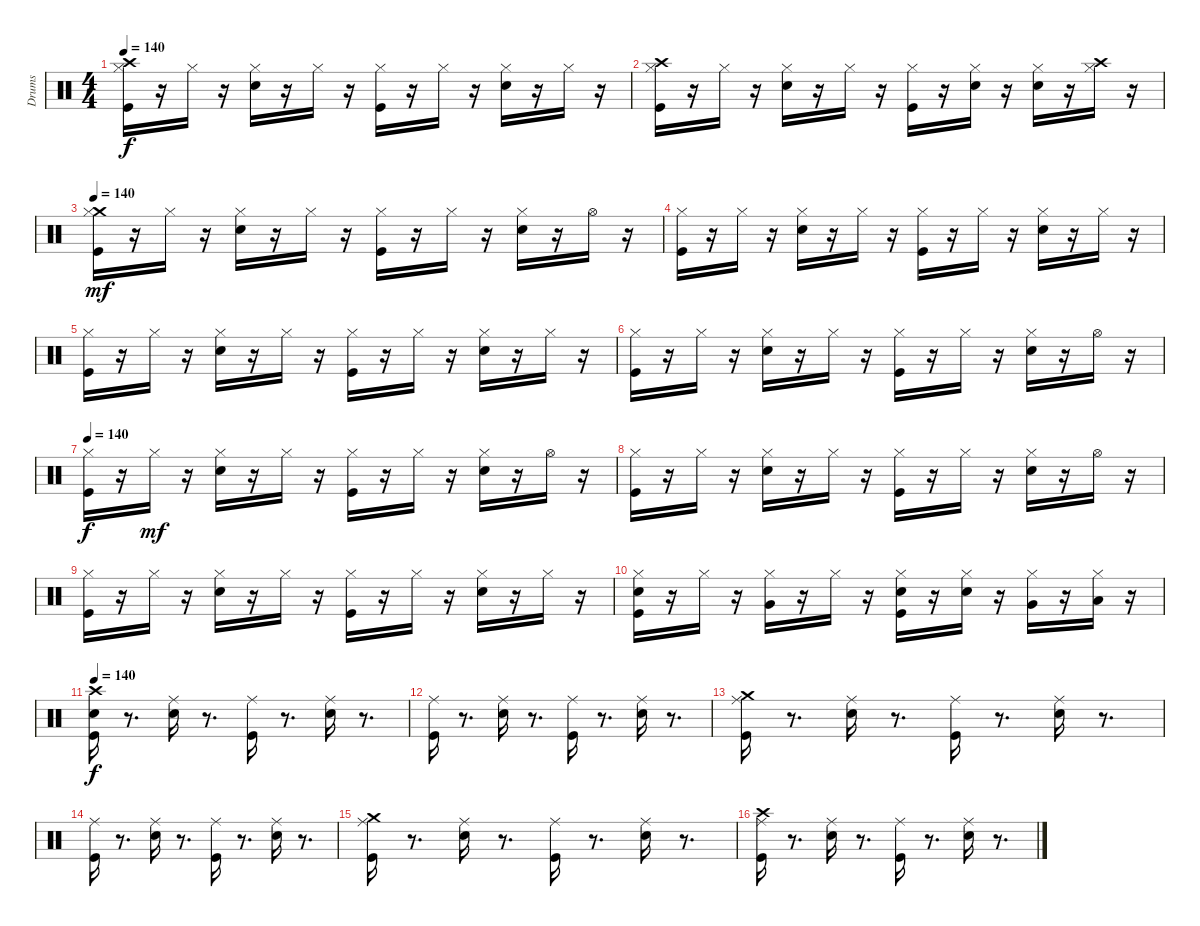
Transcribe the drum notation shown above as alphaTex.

\track ("Drums" "Drums") {instrument percussion}
\staff {score}
\articulation defaults
\ts (4 4)
\tempo 140
\clef neutral
\ks c
("Crash high (hit)" "Kick (hit)" "Hi-Hat (closed)").16{dy f} r.16 "Hi-Hat (closed)".16 r.16 ("Hi-Hat (closed)" "Snare (hit) 2").16 r.16 "Hi-Hat (closed)".16 r.16 ("Hi-Hat (closed)" "Kick (hit)").16 r.16 "Hi-Hat (closed)".16 r.16 ("Hi-Hat (closed)" "Snare (hit) 2").16 r.16 "Hi-Hat (closed)".16 r.16 |
("Crash high (hit)" "Hi-Hat (closed)" "Kick (hit)").16 r.16 "Hi-Hat (closed)".16 r.16 ("Snare (hit) 2" "Hi-Hat (closed)").16 r.16 "Hi-Hat (closed)".16 r.16 ("Kick (hit)" "Hi-Hat (closed)").16 r.16 ("Hi-Hat (closed)" "Snare (hit) 2").16 r.16 ("Snare (hit) 2" "Hi-Hat (closed)").16 r.16 ("Crash high (hit)" "Hi-Hat (closed)").16 r.16 |
\tempo 140
("Crash medium (hit)" "Kick (hit)" "Hi-Hat (closed)").16{dy mf} r.16 "Hi-Hat (closed)".16 r.16 ("Hi-Hat (closed)" "Snare (hit) 2").16 r.16 "Hi-Hat (closed)".16 r.16 ("Hi-Hat (closed)" "Kick (hit)").16 r.16 "Hi-Hat (closed)".16 r.16 ("Hi-Hat (closed)" "Snare (hit) 2").16 r.16 "Hi-Hat (open)".16 r.16 |
("Hi-Hat (closed)" "Kick (hit)").16 r.16 "Hi-Hat (closed)".16 r.16 ("Snare (hit) 2" "Hi-Hat (closed)").16 r.16 "Hi-Hat (closed)".16 r.16 ("Kick (hit)" "Hi-Hat (closed)").16 r.16 "Hi-Hat (closed)".16 r.16 ("Snare (hit) 2" "Hi-Hat (closed)").16 r.16 "Hi-Hat (closed)".16 r.16 |
("Kick (hit)" "Hi-Hat (closed)").16 r.16 "Hi-Hat (closed)".16 r.16 ("Snare (hit) 2" "Hi-Hat (closed)").16 r.16 "Hi-Hat (closed)".16 r.16 ("Hi-Hat (closed)" "Kick (hit)").16 r.16 "Hi-Hat (closed)".16 r.16 ("Hi-Hat (closed)" "Snare (hit) 2").16 r.16 "Hi-Hat (closed)".16 r.16 |
("Kick (hit)" "Hi-Hat (closed)").16 r.16 "Hi-Hat (closed)".16 r.16 ("Snare (hit) 2" "Hi-Hat (closed)").16 r.16 "Hi-Hat (closed)".16 r.16 ("Hi-Hat (closed)" "Kick (hit)").16 r.16 "Hi-Hat (closed)".16 r.16 ("Hi-Hat (closed)" "Snare (hit) 2").16 r.16 "Hi-Hat (open)".16 r.16 |
\tempo 140
("Hi-Hat (closed)" "Kick (hit)").16{dy f} r.16 "Hi-Hat (closed)".16{dy mf} r.16 ("Hi-Hat (closed)" "Snare (hit) 2").16 r.16 "Hi-Hat (closed)".16 r.16 ("Hi-Hat (closed)" "Kick (hit)").16 r.16 "Hi-Hat (closed)".16 r.16 ("Hi-Hat (closed)" "Snare (hit) 2").16 r.16 "Hi-Hat (open)".16 r.16 |
("Hi-Hat (closed)" "Kick (hit)").16 r.16 "Hi-Hat (closed)".16 r.16 ("Snare (hit) 2" "Hi-Hat (closed)").16 r.16 "Hi-Hat (closed)".16 r.16 ("Kick (hit)" "Hi-Hat (closed)").16 r.16 "Hi-Hat (closed)".16 r.16 ("Snare (hit) 2" "Hi-Hat (closed)").16 r.16 "Hi-Hat (open)".16 r.16 |
("Kick (hit)" "Hi-Hat (closed)").16 r.16 "Hi-Hat (closed)".16 r.16 ("Snare (hit) 2" "Hi-Hat (closed)").16 r.16 "Hi-Hat (closed)".16 r.16 ("Hi-Hat (closed)" "Kick (hit)").16 r.16 "Hi-Hat (closed)".16 r.16 ("Hi-Hat (closed)" "Snare (hit) 2").16 r.16 "Hi-Hat (closed)".16 r.16 |
("Kick (hit)" "Hi-Hat (closed)" "Snare (hit) 2").16 r.16 "Hi-Hat (closed)".16 r.16 ("Hi-Hat (closed)" "Very Low Tom (hit)").16 r.16 "Hi-Hat (closed)".16 r.16 ("Hi-Hat (closed)" "Snare (hit) 2" "Kick (hit)").16 r.16 ("Hi-Hat (closed)" "Snare (hit) 2").16 r.16 ("Hi-Hat (closed)" "Very Low Tom (hit)").16 r.16 ("Low Floor Tom (hit)" "Hi-Hat (closed)").16 r.16 |
\tempo 140
("Kick (hit)" "Snare (hit) 2" "Crash high (hit)").16{dy f} r.8{d} ("Ride (middle)" "Snare (hit) 2").16 r.8{d} ("Ride (middle)" "Kick (hit)").16 r.8{d} ("Ride (middle)" "Snare (hit) 2").16 r.8{d} |
("Ride (middle)" "Kick (hit)").16 r.8{d} ("Ride (middle)" "Snare (hit) 2").16 r.8{d} ("Kick (hit)" "Ride (middle)").16 r.8{d} ("Snare (hit) 2" "Ride (middle)").16 r.8{d} |
("Ride (middle)" "Kick (hit)" "Crash medium (hit)").16 r.8{d} ("Snare (hit) 2" "Ride (middle)").16 r.8{d} ("Kick (hit)" "Ride (middle)").16 r.8{d} ("Snare (hit) 2" "Ride (middle)").16 r.8{d} |
("Kick (hit)" "Ride (middle)").16 r.8{d} ("Ride (middle)" "Snare (hit) 2").16 r.8{d} ("Ride (middle)" "Kick (hit)").16 r.8{d} ("Ride (middle)" "Snare (hit) 2").16 r.8{d} |
("Crash medium (hit)" "Ride (middle)" "Kick (hit)").16 r.8{d} ("Ride (middle)" "Snare (hit) 2").16 r.8{d} ("Ride (middle)" "Kick (hit)").16 r.8{d} ("Ride (middle)" "Snare (hit) 2").16 r.8{d} |
("Crash high (hit)" "Ride (middle)" "Kick (hit)").16 r.8{d} ("Snare (hit) 2" "Ride (middle)").16 r.8{d} ("Kick (hit)" "Ride (middle)").16 r.8{d} ("Ride (middle)" "Snare (hit) 2").16 r.8{d}
